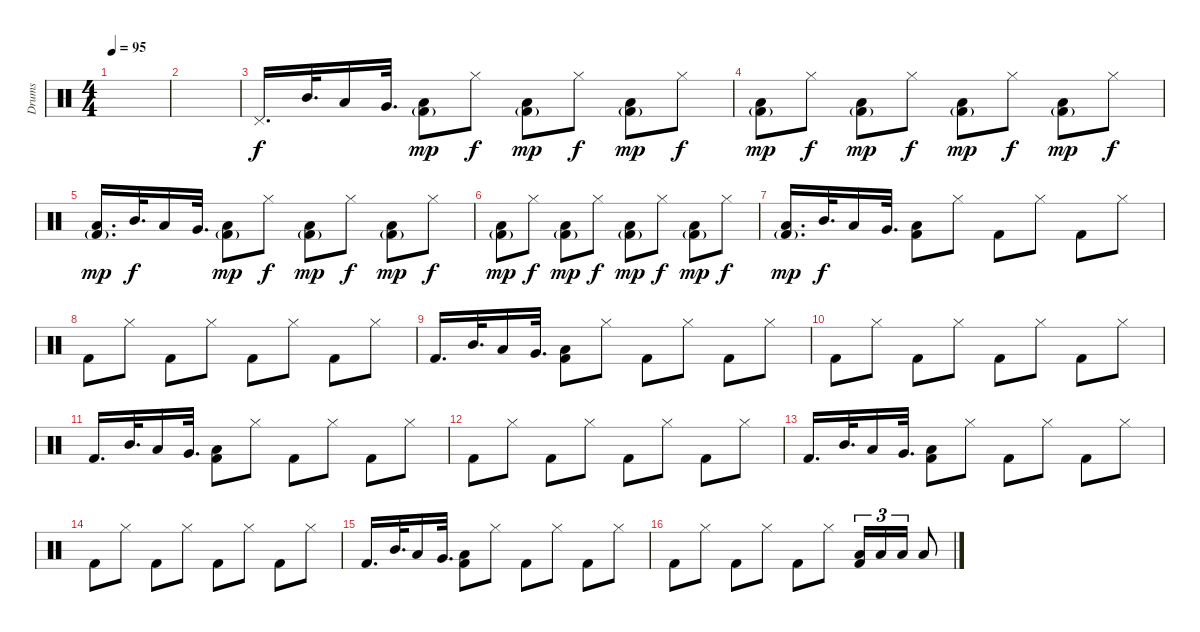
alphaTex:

\track ("Drums" "Drums") {instrument percussion}
\staff {score}
\articulation defaults
\ts (4 4)
\tempo 95
\clef neutral
\ks c
|
|
"Pedal Hi-Hat (hit)".16{d} "Mid Tom (hit)".32{d} "Low Tom (hit)".16 "Very Low Tom (hit)".32{d} ("Low Floor Tom (hit)" "Kick (hit) 2"{g}).8{dy mp} "Hi-Hat (closed)".8{dy f} ("Low Floor Tom (hit)" "Kick (hit) 2"{g}).8{dy mp} "Hi-Hat (closed)".8{dy f} ("Low Floor Tom (hit)" "Kick (hit) 2"{g}).8{dy mp} "Hi-Hat (closed)".8{dy f} |
("Low Floor Tom (hit)" "Kick (hit) 2"{g}).8{dy mp} "Hi-Hat (closed)".8{dy f} ("Low Floor Tom (hit)" "Kick (hit) 2"{g}).8{dy mp} "Hi-Hat (closed)".8{dy f} ("Low Floor Tom (hit)" "Kick (hit) 2"{g}).8{dy mp} "Hi-Hat (closed)".8{dy f} ("Low Floor Tom (hit)" "Kick (hit) 2"{g}).8{dy mp} "Hi-Hat (closed)".8{dy f} |
("Low Floor Tom (hit)" "Kick (hit) 2"{g}).16{d dy mp} "Mid Tom (hit)".32{d dy f} "Low Tom (hit)".16 "Very Low Tom (hit)".32{d} ("Low Floor Tom (hit)" "Kick (hit) 2"{g}).8{dy mp} "Hi-Hat (closed)".8{dy f} ("Low Floor Tom (hit)" "Kick (hit) 2"{g}).8{dy mp} "Hi-Hat (closed)".8{dy f} ("Low Floor Tom (hit)" "Kick (hit) 2"{g}).8{dy mp} "Hi-Hat (closed)".8{dy f} |
("Low Floor Tom (hit)" "Kick (hit) 2"{g}).8{dy mp} "Hi-Hat (closed)".8{dy f} ("Low Floor Tom (hit)" "Kick (hit) 2"{g}).8{dy mp} "Hi-Hat (closed)".8{dy f} ("Low Floor Tom (hit)" "Kick (hit) 2"{g}).8{dy mp} "Hi-Hat (closed)".8{dy f} ("Low Floor Tom (hit)" "Kick (hit) 2"{g}).8{dy mp} "Hi-Hat (closed)".8{dy f} |
("Low Floor Tom (hit)" "Kick (hit) 2"{g}).16{d dy mp} "Mid Tom (hit)".32{d dy f} "Low Tom (hit)".16 "Very Low Tom (hit)".32{d} ("Low Floor Tom (hit)" "Kick (hit) 2").8 "Hi-Hat (closed)".8 "Kick (hit) 2".8 "Hi-Hat (closed)".8 "Kick (hit) 2".8 "Hi-Hat (closed)".8 |
"Kick (hit) 2".8 "Hi-Hat (closed)".8 "Kick (hit) 2".8 "Hi-Hat (closed)".8 "Kick (hit) 2".8 "Hi-Hat (closed)".8 "Kick (hit) 2".8 "Hi-Hat (closed)".8 |
"Kick (hit) 2".16{d} "Mid Tom (hit)".32{d} "Low Tom (hit)".16 "Very Low Tom (hit)".32{d} ("Low Floor Tom (hit)" "Kick (hit) 2").8 "Hi-Hat (closed)".8 "Kick (hit) 2".8 "Hi-Hat (closed)".8 "Kick (hit) 2".8 "Hi-Hat (closed)".8 |
"Kick (hit) 2".8 "Hi-Hat (closed)".8 "Kick (hit) 2".8 "Hi-Hat (closed)".8 "Kick (hit) 2".8 "Hi-Hat (closed)".8 "Kick (hit) 2".8 "Hi-Hat (closed)".8 |
"Kick (hit) 2".16{d} "Mid Tom (hit)".32{d} "Low Tom (hit)".16 "Very Low Tom (hit)".32{d} ("Low Floor Tom (hit)" "Kick (hit) 2").8 "Hi-Hat (closed)".8 "Kick (hit) 2".8 "Hi-Hat (closed)".8 "Kick (hit) 2".8 "Hi-Hat (closed)".8 |
"Kick (hit) 2".8 "Hi-Hat (closed)".8 "Kick (hit) 2".8 "Hi-Hat (closed)".8 "Kick (hit) 2".8 "Hi-Hat (closed)".8 "Kick (hit) 2".8 "Hi-Hat (closed)".8 |
"Kick (hit) 2".16{d} "Mid Tom (hit)".32{d} "Low Tom (hit)".16 "Very Low Tom (hit)".32{d} ("Low Floor Tom (hit)" "Kick (hit) 2").8 "Hi-Hat (closed)".8 "Kick (hit) 2".8 "Hi-Hat (closed)".8 "Kick (hit) 2".8 "Hi-Hat (closed)".8 |
"Kick (hit) 2".8 "Hi-Hat (closed)".8 "Kick (hit) 2".8 "Hi-Hat (closed)".8 "Kick (hit) 2".8 "Hi-Hat (closed)".8 "Kick (hit) 2".8 "Hi-Hat (closed)".8 |
"Kick (hit) 2".16{d} "Mid Tom (hit)".32{d} "Low Tom (hit)".16 "Very Low Tom (hit)".32{d} ("Low Floor Tom (hit)" "Kick (hit) 2").8 "Hi-Hat (closed)".8 "Kick (hit) 2".8 "Hi-Hat (closed)".8 "Kick (hit) 2".8 "Hi-Hat (closed)".8 |
"Kick (hit) 2".8 "Hi-Hat (closed)".8 "Kick (hit) 2".8 "Hi-Hat (closed)".8 "Kick (hit) 2".8 "Hi-Hat (closed)".8 ("Low Tom (hit)" "Kick (hit) 2").16{tu (3 2)} "Low Tom (hit)".16{tu (3 2)} "Low Tom (hit)".16{tu (3 2)} "Low Tom (hit)".8
